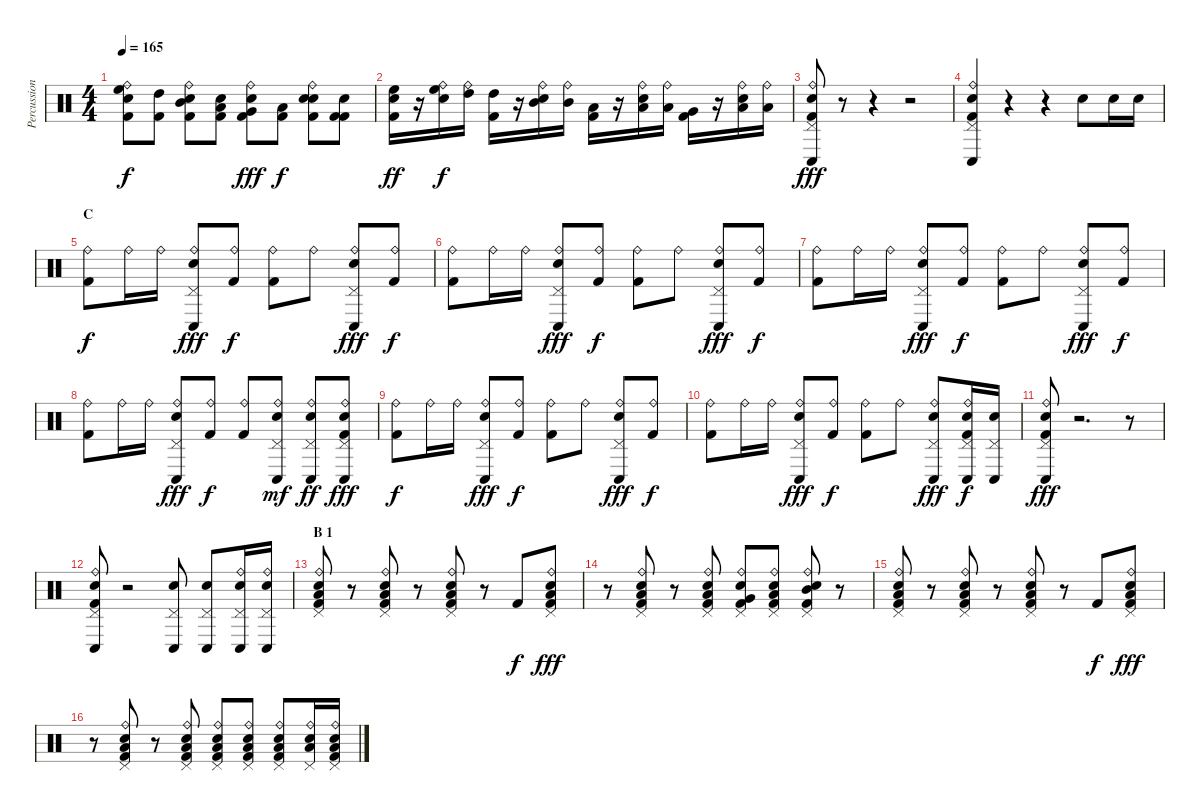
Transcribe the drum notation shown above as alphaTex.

\track ("Percussion" "Percussion") {instrument percussion}
\staff {score}
\articulation defaults
\ts (4 4)
\tempo 165
\clef neutral
\ks c
("Ride (bell)" "High Floor Tom (hit)" "Electric Snare (hit)" "Kick (hit) 2").8{dy f} ("High Tom (hit)" "Kick (hit) 2").8 ("Ride (bell)" "Mid Tom (hit)" "Electric Snare (hit)" "Kick (hit) 2").8 ("Low Tom (hit)" "Electric Snare (hit)" "Kick (hit) 2").8 ("Ride (bell)" "Very Low Tom (hit)" "Electric Snare (hit)" "Kick (hit) 2").8{dy fff} ("Low Floor Tom (hit)" "Kick (hit) 2").8{dy f} ("Ride (bell)" "Electric Snare (hit)" "Electric Snare (hit)" "Kick (hit) 2").8 ("Kick (hit) 2" "Electric Snare (hit)" "Kick (hit) 2").8 |
("Electric Snare (hit)" "High Floor Tom (hit)" "Kick (hit) 2").16{dy ff} r.16 ("Ride (bell)" "Electric Snare (hit)" "High Floor Tom (hit)").16{dy f} ("Ride (bell)" "High Tom (hit)").16 ("High Tom (hit)" "Kick (hit) 2").16 r.16 ("Ride (bell)" "Electric Snare (hit)" "Mid Tom (hit)").16 ("Ride (bell)" "Mid Tom (hit)").16 ("Low Tom (hit)" "Kick (hit) 2").16 r.16 ("Ride (bell)" "Electric Snare (hit)" "Low Tom (hit)").16 ("Ride (bell)" "Low Tom (hit)").16 ("Very Low Tom (hit)" "Kick (hit) 2").16 r.16 ("Ride (bell)" "Electric Snare (hit)" "Low Floor Tom (hit)").16 ("Ride (bell)" "Low Floor Tom (hit)").16 |
("Ride (bell)" "Pedal Hi-Hat (hit)" "Conga low (hit)" "Electric Snare (hit)" "Kick (hit) 2").8{dy fff} r.8 r.4 r.2 |
("Ride (bell)" "Pedal Hi-Hat (hit)" "Conga low (hit)" "Electric Snare (hit)" "Kick (hit) 2").4 r.4 r.4 "Electric Snare (hit)".8 "Electric Snare (hit)".16 "Electric Snare (hit)".16 |
\section ("" "C")
("Ride (bell)" "Kick (hit) 2").8{dy f} "Ride (bell)".16 "Ride (bell)".16 ("Ride (bell)" "Pedal Hi-Hat (hit)" "Conga low (hit)" "Electric Snare (hit)").8{dy fff} ("Ride (bell)" "Kick (hit) 2").8{dy f} ("Ride (bell)" "Kick (hit) 2").8 "Ride (bell)".8 ("Ride (bell)" "Pedal Hi-Hat (hit)" "Conga low (hit)" "Electric Snare (hit)").8{dy fff} ("Ride (bell)" "Kick (hit) 2").8{dy f} |
("Ride (bell)" "Kick (hit) 2").8 "Ride (bell)".16 "Ride (bell)".16 ("Ride (bell)" "Pedal Hi-Hat (hit)" "Conga low (hit)" "Electric Snare (hit)").8{dy fff} ("Ride (bell)" "Kick (hit) 2").8{dy f} ("Ride (bell)" "Kick (hit) 2").8 "Ride (bell)".8 ("Ride (bell)" "Pedal Hi-Hat (hit)" "Conga low (hit)" "Electric Snare (hit)").8{dy fff} ("Ride (bell)" "Kick (hit) 2").8{dy f} |
("Ride (bell)" "Kick (hit) 2").8 "Ride (bell)".16 "Ride (bell)".16 ("Ride (bell)" "Pedal Hi-Hat (hit)" "Conga low (hit)" "Electric Snare (hit)").8{dy fff} ("Ride (bell)" "Kick (hit) 2").8{dy f} ("Ride (bell)" "Kick (hit) 2").8 "Ride (bell)".8 ("Ride (bell)" "Pedal Hi-Hat (hit)" "Conga low (hit)" "Electric Snare (hit)").8{dy fff} ("Ride (bell)" "Kick (hit) 2").8{dy f} |
("Ride (bell)" "Kick (hit) 2").8 "Ride (bell)".16 "Ride (bell)".16 ("Ride (bell)" "Pedal Hi-Hat (hit)" "Conga low (hit)" "Electric Snare (hit)").8{dy fff} ("Ride (bell)" "Kick (hit) 2").8{dy f} ("Ride (bell)" "Kick (hit) 2").8 ("Ride (bell)" "Pedal Hi-Hat (hit)" "Conga low (hit)" "Electric Snare (hit)").8{dy mf} ("Ride (bell)" "Pedal Hi-Hat (hit)" "Conga low (hit)" "Electric Snare (hit)").8{dy ff} ("Ride (bell)" "Pedal Hi-Hat (hit)" "Conga low (hit)" "Electric Snare (hit)" "Kick (hit) 2").8{dy fff} |
("Ride (bell)" "Kick (hit) 2").8{dy f} "Ride (bell)".16 "Ride (bell)".16 ("Ride (bell)" "Pedal Hi-Hat (hit)" "Conga low (hit)" "Electric Snare (hit)").8{dy fff} ("Ride (bell)" "Kick (hit) 2").8{dy f} ("Ride (bell)" "Kick (hit) 2").8 "Ride (bell)".8 ("Ride (bell)" "Pedal Hi-Hat (hit)" "Conga low (hit)" "Electric Snare (hit)").8{dy fff} ("Ride (bell)" "Kick (hit) 2").8{dy f} |
("Ride (bell)" "Kick (hit) 2").8 "Ride (bell)".16 "Ride (bell)".16 ("Ride (bell)" "Pedal Hi-Hat (hit)" "Conga low (hit)" "Electric Snare (hit)").8{dy fff} ("Ride (bell)" "Kick (hit) 2").8{dy f} ("Ride (bell)" "Kick (hit) 2").8 "Ride (bell)".8 ("Ride (bell)" "Pedal Hi-Hat (hit)" "Conga low (hit)" "Electric Snare (hit)").8{dy fff} ("Ride (bell)" "Pedal Hi-Hat (hit)" "Conga low (hit)" "Electric Snare (hit)" "Kick (hit) 2").16{dy f} ("Pedal Hi-Hat (hit)" "Conga low (hit)" "Electric Snare (hit)").16 |
("Ride (bell)" "Pedal Hi-Hat (hit)" "Conga low (hit)" "Electric Snare (hit)" "Kick (hit) 2").8{dy fff} r.2{d} r.8 |
("Ride (bell)" "Pedal Hi-Hat (hit)" "Conga low (hit)" "Electric Snare (hit)" "Kick (hit) 2").8 r.2 ("Pedal Hi-Hat (hit)" "Conga low (hit)" "Electric Snare (hit)").8 ("Pedal Hi-Hat (hit)" "Conga low (hit)" "Electric Snare (hit)").8 ("Ride (bell)" "Pedal Hi-Hat (hit)" "Conga low (hit)" "Electric Snare (hit)").16 ("Ride (bell)" "Pedal Hi-Hat (hit)" "Conga low (hit)" "Electric Snare (hit)").16 |
\section ("" "B 1")
("Ride (bell)" "Pedal Hi-Hat (hit)" "Low Floor Tom (hit)" "Electric Snare (hit)" "Kick (hit) 2").8 r.8 ("Ride (bell)" "Pedal Hi-Hat (hit)" "Low Floor Tom (hit)" "Electric Snare (hit)" "Kick (hit) 2").8 r.8 ("Ride (bell)" "Pedal Hi-Hat (hit)" "Low Floor Tom (hit)" "Electric Snare (hit)" "Kick (hit) 2").8 r.8 "Kick (hit) 2".8{dy f} ("Ride (bell)" "Pedal Hi-Hat (hit)" "Low Floor Tom (hit)" "Electric Snare (hit)" "Kick (hit) 2").8{dy fff} |
r.8 ("Ride (bell)" "Pedal Hi-Hat (hit)" "Low Floor Tom (hit)" "Electric Snare (hit)" "Kick (hit) 2").8 r.8 ("Ride (bell)" "Pedal Hi-Hat (hit)" "Low Floor Tom (hit)" "Electric Snare (hit)" "Kick (hit) 2").8 ("Ride (bell)" "Pedal Hi-Hat (hit)" "Very Low Tom (hit)" "Electric Snare (hit)" "Kick (hit) 2").8 ("Ride (bell)" "Pedal Hi-Hat (hit)" "Low Tom (hit)" "Electric Snare (hit)" "Kick (hit) 2").8 ("Ride (bell)" "Pedal Hi-Hat (hit)" "Mid Tom (hit)" "Electric Snare (hit)" "Kick (hit) 2").8 r.8 |
("Ride (bell)" "Pedal Hi-Hat (hit)" "Low Floor Tom (hit)" "Electric Snare (hit)" "Kick (hit) 2").8 r.8 ("Ride (bell)" "Pedal Hi-Hat (hit)" "Low Floor Tom (hit)" "Electric Snare (hit)" "Kick (hit) 2").8 r.8 ("Ride (bell)" "Pedal Hi-Hat (hit)" "Low Floor Tom (hit)" "Electric Snare (hit)" "Kick (hit) 2").8 r.8 "Kick (hit) 2".8{dy f} ("Ride (bell)" "Pedal Hi-Hat (hit)" "Low Floor Tom (hit)" "Electric Snare (hit)" "Kick (hit) 2").8{dy fff} |
r.8 ("Ride (bell)" "Pedal Hi-Hat (hit)" "Low Floor Tom (hit)" "Electric Snare (hit)" "Kick (hit) 2").8 r.8 ("Ride (bell)" "Pedal Hi-Hat (hit)" "Low Floor Tom (hit)" "Electric Snare (hit)" "Kick (hit) 2").8 ("Ride (bell)" "Pedal Hi-Hat (hit)" "Low Floor Tom (hit)" "Electric Snare (hit)" "Kick (hit) 2").8 ("Ride (bell)" "Pedal Hi-Hat (hit)" "Low Floor Tom (hit)" "Electric Snare (hit)" "Kick (hit) 2").8 ("Ride (bell)" "Pedal Hi-Hat (hit)" "Low Floor Tom (hit)" "Electric Snare (hit)" "Kick (hit) 2").8 ("Ride (bell)" "Pedal Hi-Hat (hit)" "Low Floor Tom (hit)" "Electric Snare (hit)").16 ("Ride (bell)" "Pedal Hi-Hat (hit)" "Low Floor Tom (hit)" "Electric Snare (hit)" "Kick (hit) 2").16
